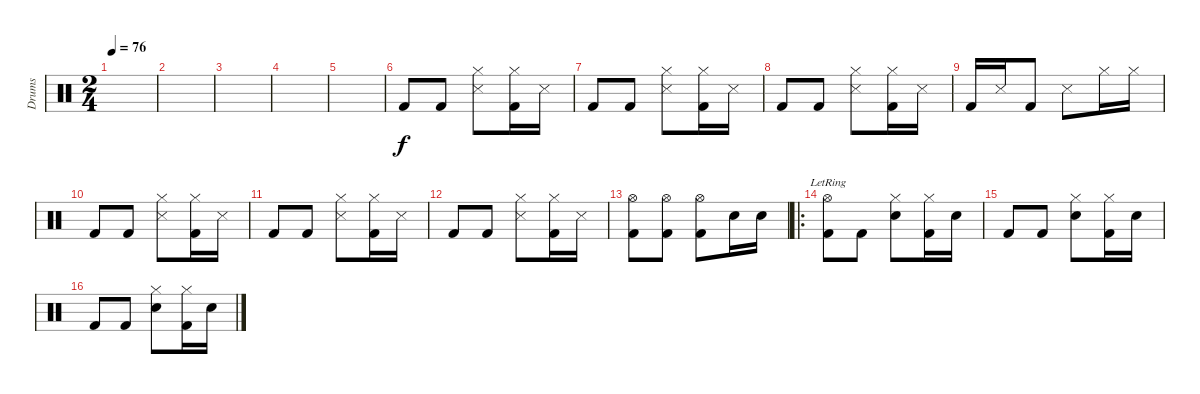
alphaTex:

\track ("Drums" "Drums") {instrument percussion}
\staff {score}
\articulation defaults
\ts (2 4)
\tempo 76
\clef neutral
\ks c
|
|
|
|
|
"Kick (hit) 2".8 "Kick (hit) 2".8 ("Snare (side stick) 3" "Hi-Hat (closed)").8 ("Kick (hit) 2" "Hi-Hat (closed)").16 "Snare (side stick) 3".16 |
"Kick (hit) 2".8 "Kick (hit) 2".8 ("Snare (side stick) 3" "Hi-Hat (closed)").8 ("Kick (hit) 2" "Hi-Hat (closed)").16 "Snare (side stick) 3".16 |
"Kick (hit) 2".8 "Kick (hit) 2".8 ("Snare (side stick) 3" "Hi-Hat (closed)").8 ("Kick (hit) 2" "Hi-Hat (closed)").16 "Snare (side stick) 3".16 |
"Kick (hit) 2".16 "Snare (side stick) 3".16 "Kick (hit) 2".8 "Snare (side stick) 3".8 "Hi-Hat (closed)".16 "Hi-Hat (closed)".16 |
"Kick (hit) 2".8 "Kick (hit) 2".8 ("Snare (side stick) 3" "Hi-Hat (closed)").8 ("Kick (hit) 2" "Hi-Hat (closed)").16 "Snare (side stick) 3".16 |
"Kick (hit) 2".8 "Kick (hit) 2".8 ("Snare (side stick) 3" "Hi-Hat (closed)").8 ("Kick (hit) 2" "Hi-Hat (closed)").16 "Snare (side stick) 3".16 |
"Kick (hit) 2".8 "Kick (hit) 2".8 ("Snare (side stick) 3" "Hi-Hat (closed)").8 ("Kick (hit) 2" "Hi-Hat (closed)").16 "Snare (side stick) 3".16 |
("Kick (hit) 2" "Hi-Hat (open)").8 ("Kick (hit) 2" "Hi-Hat (open)").8 ("Kick (hit) 2" "Hi-Hat (open)").8 "Snare (hit) 2".16 "Snare (hit) 2".16 |
\ro
("Kick (hit) 2" "Hi-Hat (open)"{lr}).8 "Kick (hit) 2".8 ("Electric Snare (hit)" "Hi-Hat (closed)").8 ("Kick (hit) 2" "Hi-Hat (closed)").16 "Electric Snare (hit)".16 |
"Kick (hit) 2".8 "Kick (hit) 2".8 ("Electric Snare (hit)" "Hi-Hat (closed)").8 ("Kick (hit) 2" "Hi-Hat (closed)").16 "Electric Snare (hit)".16 |
"Kick (hit) 2".8 "Kick (hit) 2".8 ("Electric Snare (hit)" "Hi-Hat (closed)").8 ("Kick (hit) 2" "Hi-Hat (closed)").16 "Electric Snare (hit)".16
